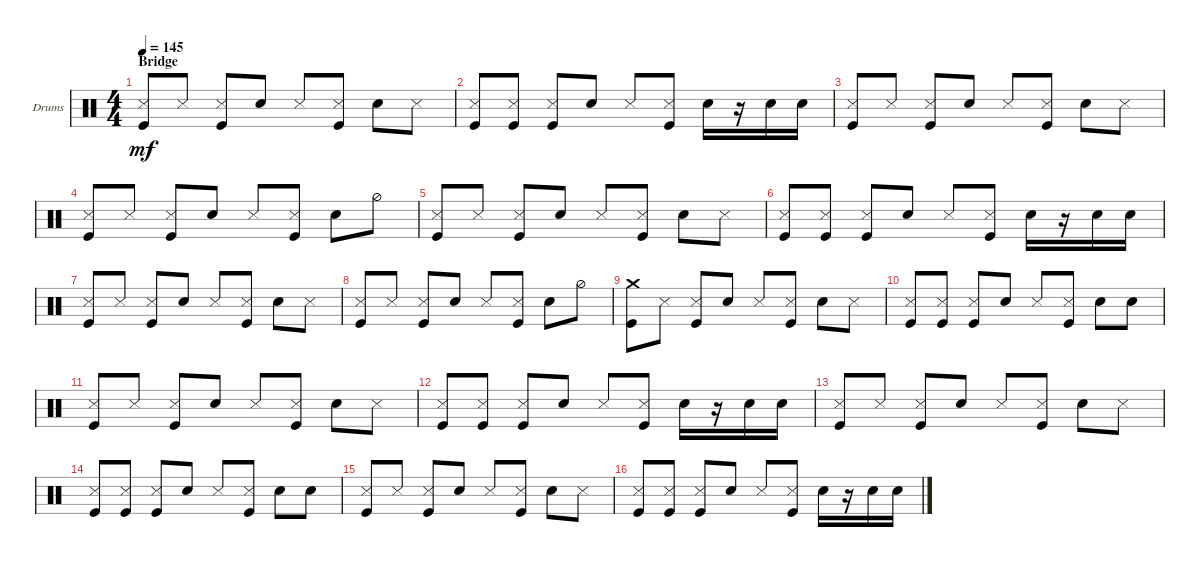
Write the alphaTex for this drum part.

\defaultSystemsLayout 4
\bracketExtendMode groupsimilarinstruments
\firstSystemTrackNameOrientation horizontal
\otherSystemsTrackNameOrientation horizontal
\track ("Matt Uychich" "Drums") {instrument percussion}
\staff {score}
\articulation defaults
\ts (4 4)
\section ("" "Bridge")
\tempo 145
\clef neutral
\scale
0.333333
\ks c
("Snare (side stick) 3" "Kick (hit)").8{dy mf} "Snare (side stick) 3".8 ("Snare (side stick) 3" "Kick (hit)").8 "Snare (hit) 2".8 "Snare (side stick) 3".8 ("Snare (side stick) 3" "Kick (hit)").8 "Snare (hit) 2".8 "Snare (side stick) 3".8 |
\scale
0.333333 ("Snare (side stick) 3" "Kick (hit)").8 ("Snare (side stick) 3" "Kick (hit)").8 ("Snare (side stick) 3" "Kick (hit)").8 "Snare (hit) 2".8 "Snare (side stick) 3".8 ("Snare (side stick) 3" "Kick (hit)").8 "Snare (hit) 2".16 r.16 "Snare (hit) 2".16 "Snare (hit) 2".16 |
\scale
0.333333 ("Snare (side stick) 3" "Kick (hit)").8 "Snare (side stick) 3".8 ("Snare (side stick) 3" "Kick (hit)").8 "Snare (hit) 2".8 "Snare (side stick) 3".8 ("Snare (side stick) 3" "Kick (hit)").8 "Snare (hit) 2".8 "Snare (side stick) 3".8 |
\scale
0.333333 ("Snare (side stick) 3" "Kick (hit)").8 "Snare (side stick) 3".8 ("Snare (side stick) 3" "Kick (hit)").8 "Snare (hit) 2".8 "Snare (side stick) 3".8 ("Snare (side stick) 3" "Kick (hit)").8 "Snare (hit) 2".8 "Hi-Hat (half)".8 |
\scale
0.333333 ("Snare (side stick) 3" "Kick (hit)").8 "Snare (side stick) 3".8 ("Snare (side stick) 3" "Kick (hit)").8 "Snare (hit) 2".8 "Snare (side stick) 3".8 ("Snare (side stick) 3" "Kick (hit)").8 "Snare (hit) 2".8 "Snare (side stick) 3".8 |
\scale
0.333333 ("Snare (side stick) 3" "Kick (hit)").8 ("Snare (side stick) 3" "Kick (hit)").8 ("Snare (side stick) 3" "Kick (hit)").8 "Snare (hit) 2".8 "Snare (side stick) 3".8 ("Snare (side stick) 3" "Kick (hit)").8 "Snare (hit) 2".16 r.16 "Snare (hit) 2".16 "Snare (hit) 2".16 |
\scale
0.333333 ("Snare (side stick) 3" "Kick (hit)").8 "Snare (side stick) 3".8 ("Snare (side stick) 3" "Kick (hit)").8 "Snare (hit) 2".8 "Snare (side stick) 3".8 ("Snare (side stick) 3" "Kick (hit)").8 "Snare (hit) 2".8 "Snare (side stick) 3".8 |
\scale
0.333333 ("Snare (side stick) 3" "Kick (hit)").8 "Snare (side stick) 3".8 ("Snare (side stick) 3" "Kick (hit)").8 "Snare (hit) 2".8 "Snare (side stick) 3".8 ("Snare (side stick) 3" "Kick (hit)").8 "Snare (hit) 2".8 "Hi-Hat (half)".8 |
\scale
0.333333 ("Kick (hit)" "Crash medium (hit)").8 "Snare (side stick) 3".8 ("Snare (side stick) 3" "Kick (hit)").8 "Snare (hit) 2".8 "Snare (side stick) 3".8 ("Snare (side stick) 3" "Kick (hit)").8 "Snare (hit) 2".8 "Snare (side stick) 3".8 |
\scale
0.333333 ("Snare (side stick) 3" "Kick (hit)").8 ("Snare (side stick) 3" "Kick (hit)").8 ("Snare (side stick) 3" "Kick (hit)").8 "Snare (hit) 2".8 "Snare (side stick) 3".8 ("Snare (side stick) 3" "Kick (hit)").8 "Snare (hit) 2".8 "Snare (hit) 2".8 |
\scale
0.333333 ("Snare (side stick) 3" "Kick (hit)").8 "Snare (side stick) 3".8 ("Snare (side stick) 3" "Kick (hit)").8 "Snare (hit) 2".8 "Snare (side stick) 3".8 ("Snare (side stick) 3" "Kick (hit)").8 "Snare (hit) 2".8 "Snare (side stick) 3".8 |
\scale
0.333333 ("Snare (side stick) 3" "Kick (hit)").8 ("Snare (side stick) 3" "Kick (hit)").8 ("Snare (side stick) 3" "Kick (hit)").8 "Snare (hit) 2".8 "Snare (side stick) 3".8 ("Snare (side stick) 3" "Kick (hit)").8 "Snare (hit) 2".16 r.16 "Snare (hit) 2".16 "Snare (hit) 2".16 |
\scale
0.333333 ("Snare (side stick) 3" "Kick (hit)").8 "Snare (side stick) 3".8 ("Snare (side stick) 3" "Kick (hit)").8 "Snare (hit) 2".8 "Snare (side stick) 3".8 ("Snare (side stick) 3" "Kick (hit)").8 "Snare (hit) 2".8 "Snare (side stick) 3".8 |
\scale
0.333333 ("Snare (side stick) 3" "Kick (hit)").8 ("Snare (side stick) 3" "Kick (hit)").8 ("Snare (side stick) 3" "Kick (hit)").8 "Snare (hit) 2".8 "Snare (side stick) 3".8 ("Snare (side stick) 3" "Kick (hit)").8 "Snare (hit) 2".8 "Snare (hit) 2".8 |
\scale
0.333333 ("Snare (side stick) 3" "Kick (hit)").8 "Snare (side stick) 3".8 ("Snare (side stick) 3" "Kick (hit)").8 "Snare (hit) 2".8 "Snare (side stick) 3".8 ("Snare (side stick) 3" "Kick (hit)").8 "Snare (hit) 2".8 "Snare (side stick) 3".8 |
\scale
0.333333 ("Snare (side stick) 3" "Kick (hit)").8 ("Snare (side stick) 3" "Kick (hit)").8 ("Snare (side stick) 3" "Kick (hit)").8 "Snare (hit) 2".8 "Snare (side stick) 3".8 ("Snare (side stick) 3" "Kick (hit)").8 "Snare (hit) 2".16 r.16 "Snare (hit) 2".16 "Snare (hit) 2".16
